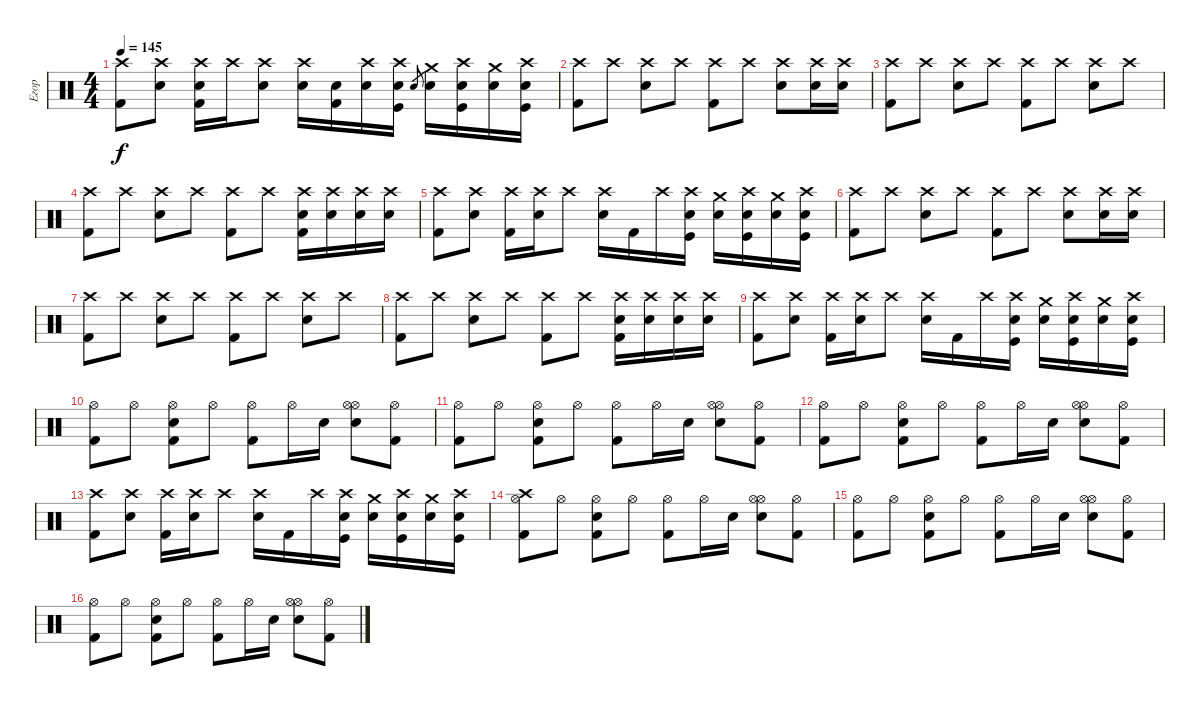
\track ("Егор" "Егор") {instrument percussion}
\staff {score}
\articulation defaults
\ts (4 4)
\tempo 145
\clef neutral
\ks c
("Crash high (hit)" "Kick (hit) 2").8{dy f} ("Crash high (hit)" "Electric Snare (hit)").8 ("Crash high (hit)" "Electric Snare (hit)" "Kick (hit) 2").16 "Crash high (hit)".16 ("Crash high (hit)" "Electric Snare (hit)").8 ("Crash high (hit)" "Electric Snare (hit)").16 ("Electric Snare (hit)" "Kick (hit) 2").16 ("Crash high (hit)" "Electric Snare (hit)").16 ("Crash high (hit)" "Electric Snare (hit)" "Kick (hit)").16 "Electric Snare (hit)".8{gr} ("Crash medium (hit)" "Electric Snare (hit)").16 ("Crash high (hit)" "Electric Snare (hit)" "Kick (hit)").16 ("Crash medium (hit)" "Electric Snare (hit)").16 ("Crash high (hit)" "Electric Snare (hit)" "Kick (hit)").16 |
("Crash high (hit)" "Kick (hit) 2").8 "Crash high (hit)".8 ("Crash high (hit)" "Electric Snare (hit)").8 "Crash high (hit)".8 ("Crash high (hit)" "Kick (hit) 2").8 "Crash high (hit)".8 ("Crash high (hit)" "Electric Snare (hit)").8 ("Crash high (hit)" "Electric Snare (hit)").16 ("Crash high (hit)" "Electric Snare (hit)").16 |
("Crash high (hit)" "Kick (hit) 2").8 "Crash high (hit)".8 ("Crash high (hit)" "Electric Snare (hit)").8 "Crash high (hit)".8 ("Crash high (hit)" "Kick (hit) 2").8 "Crash high (hit)".8 ("Crash high (hit)" "Electric Snare (hit)").8 "Crash high (hit)".8 |
("Crash high (hit)" "Kick (hit) 2").8 "Crash high (hit)".8 ("Crash high (hit)" "Electric Snare (hit)").8 "Crash high (hit)".8 ("Crash high (hit)" "Kick (hit) 2").8 "Crash high (hit)".8 ("Crash high (hit)" "Electric Snare (hit)" "Kick (hit) 2").16 ("Crash high (hit)" "Electric Snare (hit)").16 ("Crash high (hit)" "Electric Snare (hit)").16 ("Crash high (hit)" "Electric Snare (hit)").16 |
("Crash high (hit)" "Kick (hit) 2").8 ("Crash high (hit)" "Electric Snare (hit)").8 ("Crash high (hit)" "Kick (hit) 2").16 ("Crash high (hit)" "Electric Snare (hit)").16 "Crash high (hit)".8 ("Crash high (hit)" "Electric Snare (hit)").16 "Kick (hit) 2".16 "Crash high (hit)".16 ("Crash high (hit)" "Electric Snare (hit)" "Kick (hit)").16 ("Crash medium (hit)" "Electric Snare (hit)").16 ("Crash high (hit)" "Electric Snare (hit)" "Kick (hit)").16 ("Crash medium (hit)" "Electric Snare (hit)").16 ("Crash high (hit)" "Electric Snare (hit)" "Kick (hit)").16 |
("Crash high (hit)" "Kick (hit) 2").8 "Crash high (hit)".8 ("Crash high (hit)" "Electric Snare (hit)").8 "Crash high (hit)".8 ("Crash high (hit)" "Kick (hit) 2").8 "Crash high (hit)".8 ("Crash high (hit)" "Electric Snare (hit)").8 ("Crash high (hit)" "Electric Snare (hit)").16 ("Crash high (hit)" "Electric Snare (hit)").16 |
("Crash high (hit)" "Kick (hit) 2").8 "Crash high (hit)".8 ("Crash high (hit)" "Electric Snare (hit)").8 "Crash high (hit)".8 ("Crash high (hit)" "Kick (hit) 2").8 "Crash high (hit)".8 ("Crash high (hit)" "Electric Snare (hit)").8 "Crash high (hit)".8 |
("Crash high (hit)" "Kick (hit) 2").8 "Crash high (hit)".8 ("Crash high (hit)" "Electric Snare (hit)").8 "Crash high (hit)".8 ("Crash high (hit)" "Kick (hit) 2").8 "Crash high (hit)".8 ("Crash high (hit)" "Electric Snare (hit)" "Kick (hit) 2").16 ("Crash high (hit)" "Electric Snare (hit)").16 ("Crash high (hit)" "Electric Snare (hit)").16 ("Crash high (hit)" "Electric Snare (hit)").16 |
("Crash high (hit)" "Kick (hit) 2").8 ("Crash high (hit)" "Electric Snare (hit)").8 ("Crash high (hit)" "Kick (hit) 2").16 ("Crash high (hit)" "Electric Snare (hit)").16 "Crash high (hit)".8 ("Crash high (hit)" "Electric Snare (hit)").16 "Kick (hit) 2".16 "Crash high (hit)".16 ("Crash high (hit)" "Electric Snare (hit)" "Kick (hit)").16 ("Crash medium (hit)" "Electric Snare (hit)").16 ("Crash high (hit)" "Electric Snare (hit)" "Kick (hit)").16 ("Crash medium (hit)" "Electric Snare (hit)").16 ("Crash high (hit)" "Electric Snare (hit)" "Kick (hit)").16 |
("Hi-Hat (open)" "Kick (hit) 2").8 "Hi-Hat (open)".8 ("Hi-Hat (open)" "Electric Snare (hit)" "Kick (hit) 2").8 "Hi-Hat (open)".8 ("Hi-Hat (open)" "Kick (hit) 2").8 "Hi-Hat (open)".16 "Electric Snare (hit)".16 ("Hi-Hat (open)" "Electric Snare (hit)" "Hi-Hat (open)").8 ("Hi-Hat (open)" "Kick (hit) 2").8 |
("Hi-Hat (open)" "Kick (hit) 2").8 "Hi-Hat (open)".8 ("Hi-Hat (open)" "Electric Snare (hit)" "Kick (hit) 2").8 "Hi-Hat (open)".8 ("Hi-Hat (open)" "Kick (hit) 2").8 "Hi-Hat (open)".16 "Electric Snare (hit)".16 ("Hi-Hat (open)" "Electric Snare (hit)" "Hi-Hat (open)").8 ("Hi-Hat (open)" "Kick (hit) 2").8 |
("Hi-Hat (open)" "Kick (hit) 2").8 "Hi-Hat (open)".8 ("Hi-Hat (open)" "Electric Snare (hit)" "Kick (hit) 2").8 "Hi-Hat (open)".8 ("Hi-Hat (open)" "Kick (hit) 2").8 "Hi-Hat (open)".16 "Electric Snare (hit)".16 ("Hi-Hat (open)" "Electric Snare (hit)" "Hi-Hat (open)").8 ("Hi-Hat (open)" "Kick (hit) 2").8 |
("Crash high (hit)" "Kick (hit) 2").8 ("Crash high (hit)" "Electric Snare (hit)").8 ("Crash high (hit)" "Kick (hit) 2").16 ("Crash high (hit)" "Electric Snare (hit)").16 "Crash high (hit)".8 ("Crash high (hit)" "Electric Snare (hit)").16 "Kick (hit) 2".16 "Crash high (hit)".16 ("Crash high (hit)" "Electric Snare (hit)" "Kick (hit)").16 ("Crash medium (hit)" "Electric Snare (hit)").16 ("Crash high (hit)" "Electric Snare (hit)" "Kick (hit)").16 ("Crash medium (hit)" "Electric Snare (hit)").16 ("Crash high (hit)" "Electric Snare (hit)" "Kick (hit)").16 |
("Hi-Hat (open)" "Crash high (hit)" "Kick (hit) 2").8 "Hi-Hat (open)".8 ("Hi-Hat (open)" "Electric Snare (hit)" "Kick (hit) 2").8 "Hi-Hat (open)".8 ("Hi-Hat (open)" "Kick (hit) 2").8 "Hi-Hat (open)".16 "Electric Snare (hit)".16 ("Hi-Hat (open)" "Electric Snare (hit)" "Hi-Hat (open)").8 ("Hi-Hat (open)" "Kick (hit) 2").8 |
("Hi-Hat (open)" "Kick (hit) 2").8 "Hi-Hat (open)".8 ("Hi-Hat (open)" "Electric Snare (hit)" "Kick (hit) 2").8 "Hi-Hat (open)".8 ("Hi-Hat (open)" "Kick (hit) 2").8 "Hi-Hat (open)".16 "Electric Snare (hit)".16 ("Hi-Hat (open)" "Electric Snare (hit)" "Hi-Hat (open)").8 ("Hi-Hat (open)" "Kick (hit) 2").8 |
("Hi-Hat (open)" "Kick (hit) 2").8 "Hi-Hat (open)".8 ("Hi-Hat (open)" "Electric Snare (hit)" "Kick (hit) 2").8 "Hi-Hat (open)".8 ("Hi-Hat (open)" "Kick (hit) 2").8 "Hi-Hat (open)".16 "Electric Snare (hit)".16 ("Hi-Hat (open)" "Electric Snare (hit)" "Hi-Hat (open)").8 ("Hi-Hat (open)" "Kick (hit) 2").8
